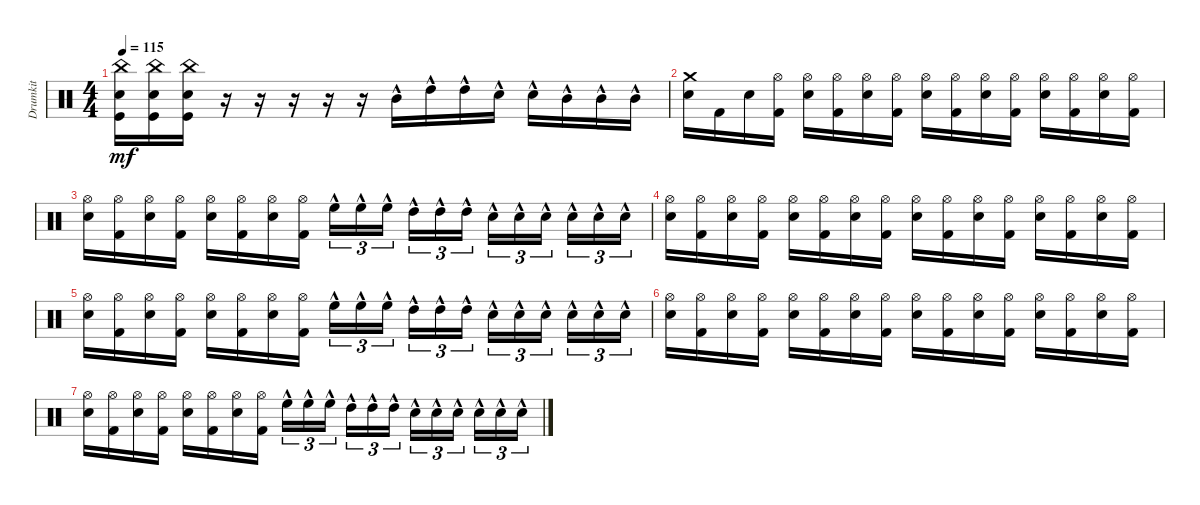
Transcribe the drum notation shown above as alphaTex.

\track ("Drumkit" "Drumkit") {instrument percussion}
\staff {score}
\articulation defaults
\ts (4 4)
\tempo 115
\clef neutral
\ks c
("Kick (hit)" "Snare (hit) 2" "China (hit)").16{dy mf} ("Kick (hit)" "Snare (hit) 2" "China (hit)").16 ("Kick (hit)" "Snare (hit) 2" "China (hit)").16 r.16 r.16 r.16 r.16 r.16 "Mid Tom (hit)"{hac}.16 "High Tom (hit)"{hac}.16 "High Tom (hit)"{hac}.16 "Snare (hit) 2"{hac}.16 "Snare (hit) 2"{hac}.16 "Mid Tom (hit)"{hac}.16 "Mid Tom (hit)"{hac}.16 "Mid Tom (hit)"{hac}.16 |
("Snare (hit) 2" "Crash medium (hit)").16 "Kick (hit) 2".16 "Snare (hit) 2".16 ("Hi-Hat (open)" "Kick (hit) 2").16 ("Hi-Hat (open)" "Snare (hit) 2").16 ("Hi-Hat (open)" "Kick (hit) 2").16 ("Hi-Hat (open)" "Snare (hit) 2").16 ("Hi-Hat (open)" "Kick (hit) 2").16 ("Hi-Hat (open)" "Snare (hit) 2").16 ("Hi-Hat (open)" "Kick (hit) 2").16 ("Hi-Hat (open)" "Snare (hit) 2").16 ("Hi-Hat (open)" "Kick (hit) 2").16 ("Hi-Hat (open)" "Snare (hit) 2").16 ("Hi-Hat (open)" "Kick (hit) 2").16 ("Hi-Hat (open)" "Snare (hit) 2").16 ("Hi-Hat (open)" "Kick (hit) 2").16 |
("Hi-Hat (open)" "Snare (hit) 2").16 ("Hi-Hat (open)" "Kick (hit) 2").16 ("Hi-Hat (open)" "Snare (hit) 2").16 ("Hi-Hat (open)" "Kick (hit) 2").16 ("Hi-Hat (open)" "Snare (hit) 2").16 ("Hi-Hat (open)" "Kick (hit) 2").16 ("Hi-Hat (open)" "Snare (hit) 2").16 ("Hi-Hat (open)" "Kick (hit) 2").16 "High Floor Tom (hit)"{hac}.16{tu (3 2)} "High Floor Tom (hit)"{hac}.16{tu (3 2)} "High Floor Tom (hit)"{hac}.16{tu (3 2)} "High Tom (hit)"{hac}.16{tu (3 2)} "High Tom (hit)"{hac}.16{tu (3 2)} "High Tom (hit)"{hac}.16{tu (3 2)} "Snare (hit) 2"{hac}.16{tu (3 2)} "Snare (hit) 2"{hac}.16{tu (3 2)} "Snare (hit) 2"{hac}.16{tu (3 2)} "Snare (hit) 2"{hac}.16{tu (3 2)} "Snare (hit) 2"{hac}.16{tu (3 2)} "Snare (hit) 2"{hac}.16{tu (3 2)} |
("Hi-Hat (open)" "Snare (hit) 2").16 ("Hi-Hat (open)" "Kick (hit) 2").16 ("Hi-Hat (open)" "Snare (hit) 2").16 ("Hi-Hat (open)" "Kick (hit) 2").16 ("Hi-Hat (open)" "Snare (hit) 2").16 ("Hi-Hat (open)" "Kick (hit) 2").16 ("Hi-Hat (open)" "Snare (hit) 2").16 ("Hi-Hat (open)" "Kick (hit) 2").16 ("Hi-Hat (open)" "Snare (hit) 2").16 ("Hi-Hat (open)" "Kick (hit) 2").16 ("Hi-Hat (open)" "Snare (hit) 2").16 ("Hi-Hat (open)" "Kick (hit) 2").16 ("Hi-Hat (open)" "Snare (hit) 2").16 ("Hi-Hat (open)" "Kick (hit) 2").16 ("Hi-Hat (open)" "Snare (hit) 2").16 ("Hi-Hat (open)" "Kick (hit) 2").16 |
("Hi-Hat (open)" "Snare (hit) 2").16 ("Hi-Hat (open)" "Kick (hit) 2").16 ("Hi-Hat (open)" "Snare (hit) 2").16 ("Hi-Hat (open)" "Kick (hit) 2").16 ("Hi-Hat (open)" "Snare (hit) 2").16 ("Hi-Hat (open)" "Kick (hit) 2").16 ("Hi-Hat (open)" "Snare (hit) 2").16 ("Hi-Hat (open)" "Kick (hit) 2").16 "High Floor Tom (hit)"{hac}.16{tu (3 2)} "High Floor Tom (hit)"{hac}.16{tu (3 2)} "High Floor Tom (hit)"{hac}.16{tu (3 2)} "High Tom (hit)"{hac}.16{tu (3 2)} "High Tom (hit)"{hac}.16{tu (3 2)} "High Tom (hit)"{hac}.16{tu (3 2)} "Snare (hit) 2"{hac}.16{tu (3 2)} "Snare (hit) 2"{hac}.16{tu (3 2)} "Snare (hit) 2"{hac}.16{tu (3 2)} "Snare (hit) 2"{hac}.16{tu (3 2)} "Snare (hit) 2"{hac}.16{tu (3 2)} "Snare (hit) 2"{hac}.16{tu (3 2)} |
("Hi-Hat (open)" "Snare (hit) 2").16 ("Hi-Hat (open)" "Kick (hit) 2").16 ("Hi-Hat (open)" "Snare (hit) 2").16 ("Hi-Hat (open)" "Kick (hit) 2").16 ("Hi-Hat (open)" "Snare (hit) 2").16 ("Hi-Hat (open)" "Kick (hit) 2").16 ("Hi-Hat (open)" "Snare (hit) 2").16 ("Hi-Hat (open)" "Kick (hit) 2").16 ("Hi-Hat (open)" "Snare (hit) 2").16 ("Hi-Hat (open)" "Kick (hit) 2").16 ("Hi-Hat (open)" "Snare (hit) 2").16 ("Hi-Hat (open)" "Kick (hit) 2").16 ("Hi-Hat (open)" "Snare (hit) 2").16 ("Hi-Hat (open)" "Kick (hit) 2").16 ("Hi-Hat (open)" "Snare (hit) 2").16 ("Hi-Hat (open)" "Kick (hit) 2").16 |
("Hi-Hat (open)" "Snare (hit) 2").16 ("Hi-Hat (open)" "Kick (hit) 2").16 ("Hi-Hat (open)" "Snare (hit) 2").16 ("Hi-Hat (open)" "Kick (hit) 2").16 ("Hi-Hat (open)" "Snare (hit) 2").16 ("Hi-Hat (open)" "Kick (hit) 2").16 ("Hi-Hat (open)" "Snare (hit) 2").16 ("Hi-Hat (open)" "Kick (hit) 2").16 "High Floor Tom (hit)"{hac}.16{tu (3 2)} "High Floor Tom (hit)"{hac}.16{tu (3 2)} "High Floor Tom (hit)"{hac}.16{tu (3 2)} "High Tom (hit)"{hac}.16{tu (3 2)} "High Tom (hit)"{hac}.16{tu (3 2)} "High Tom (hit)"{hac}.16{tu (3 2)} "Snare (hit) 2"{hac}.16{tu (3 2)} "Snare (hit) 2"{hac}.16{tu (3 2)} "Snare (hit) 2"{hac}.16{tu (3 2)} "Snare (hit) 2"{hac}.16{tu (3 2)} "Snare (hit) 2"{hac}.16{tu (3 2)} "Snare (hit) 2"{hac}.16{tu (3 2)}
